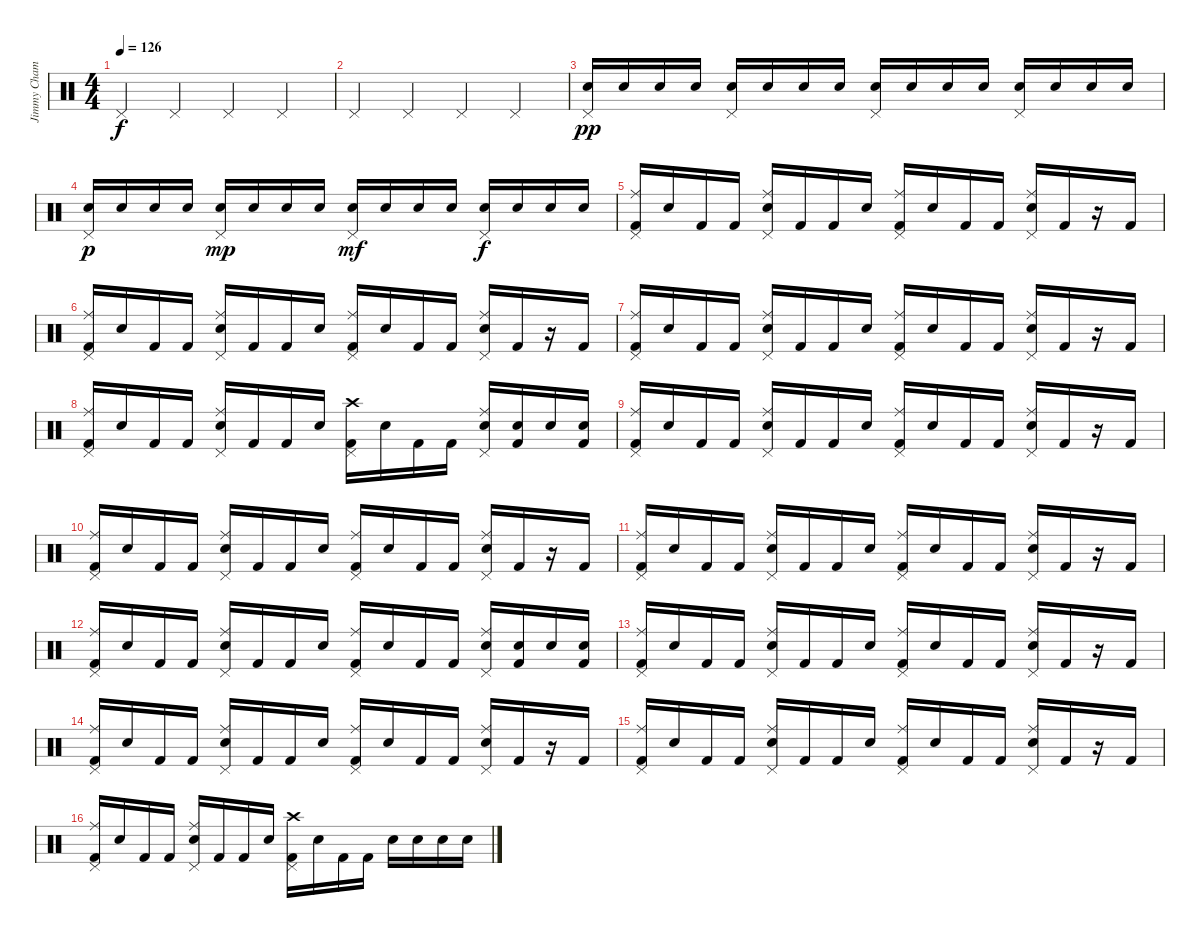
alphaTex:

\track ("Jimmy Chamberlain" "Jimmy Cham") {instrument percussion}
\staff {score}
\articulation defaults
\ts (4 4)
\tempo 126
\clef neutral
\ks c "Pedal Hi-Hat (hit)".4{dy f} "Pedal Hi-Hat (hit)".4 "Pedal Hi-Hat (hit)".4 "Pedal Hi-Hat (hit)".4
|
"Pedal Hi-Hat (hit)".4 "Pedal Hi-Hat (hit)".4 "Pedal Hi-Hat (hit)".4 "Pedal Hi-Hat (hit)".4 |
("Pedal Hi-Hat (hit)" "Snare (hit) 2").16{dy pp} "Snare (hit) 2".16 "Snare (hit) 2".16 "Snare (hit) 2".16 ("Pedal Hi-Hat (hit)" "Snare (hit) 2").16 "Snare (hit) 2".16 "Snare (hit) 2".16 "Snare (hit) 2".16 ("Pedal Hi-Hat (hit)" "Snare (hit) 2").16 "Snare (hit) 2".16 "Snare (hit) 2".16 "Snare (hit) 2".16 ("Pedal Hi-Hat (hit)" "Snare (hit) 2").16 "Snare (hit) 2".16 "Snare (hit) 2".16 "Snare (hit) 2".16 |
("Pedal Hi-Hat (hit)" "Snare (hit) 2").16{dy p} "Snare (hit) 2".16 "Snare (hit) 2".16 "Snare (hit) 2".16 ("Pedal Hi-Hat (hit)" "Snare (hit) 2").16{dy mp} "Snare (hit) 2".16 "Snare (hit) 2".16 "Snare (hit) 2".16 ("Pedal Hi-Hat (hit)" "Snare (hit) 2").16{dy mf} "Snare (hit) 2".16 "Snare (hit) 2".16 "Snare (hit) 2".16 ("Pedal Hi-Hat (hit)" "Snare (hit) 2").16{dy f} "Snare (hit) 2".16 "Snare (hit) 2".16 "Snare (hit) 2".16 |
("Ride (middle)" "Pedal Hi-Hat (hit)" "Kick (hit) 2").16 "Snare (hit) 2".16 "Kick (hit) 2".16 "Kick (hit) 2".16 ("Ride (middle)" "Pedal Hi-Hat (hit)" "Snare (hit) 2").16 "Kick (hit) 2".16 "Kick (hit) 2".16 "Snare (hit) 2".16 ("Ride (middle)" "Pedal Hi-Hat (hit)" "Kick (hit) 2").16 "Snare (hit) 2".16 "Kick (hit) 2".16 "Kick (hit) 2".16 ("Ride (middle)" "Pedal Hi-Hat (hit)" "Snare (hit) 2").16 "Kick (hit) 2".16 r.16 "Kick (hit) 2".16 |
("Ride (middle)" "Pedal Hi-Hat (hit)" "Kick (hit) 2").16 "Snare (hit) 2".16 "Kick (hit) 2".16 "Kick (hit) 2".16 ("Ride (middle)" "Pedal Hi-Hat (hit)" "Snare (hit) 2").16 "Kick (hit) 2".16 "Kick (hit) 2".16 "Snare (hit) 2".16 ("Ride (middle)" "Pedal Hi-Hat (hit)" "Kick (hit) 2").16 "Snare (hit) 2".16 "Kick (hit) 2".16 "Kick (hit) 2".16 ("Ride (middle)" "Pedal Hi-Hat (hit)" "Snare (hit) 2").16 "Kick (hit) 2".16 r.16 "Kick (hit) 2".16 |
("Ride (middle)" "Pedal Hi-Hat (hit)" "Kick (hit) 2").16 "Snare (hit) 2".16 "Kick (hit) 2".16 "Kick (hit) 2".16 ("Ride (middle)" "Pedal Hi-Hat (hit)" "Snare (hit) 2").16 "Kick (hit) 2".16 "Kick (hit) 2".16 "Snare (hit) 2".16 ("Ride (middle)" "Pedal Hi-Hat (hit)" "Kick (hit) 2").16 "Snare (hit) 2".16 "Kick (hit) 2".16 "Kick (hit) 2".16 ("Ride (middle)" "Pedal Hi-Hat (hit)" "Snare (hit) 2").16 "Kick (hit) 2".16 r.16 "Kick (hit) 2".16 |
("Ride (middle)" "Pedal Hi-Hat (hit)" "Kick (hit) 2").16 "Snare (hit) 2".16 "Kick (hit) 2".16 "Kick (hit) 2".16 ("Ride (middle)" "Pedal Hi-Hat (hit)" "Snare (hit) 2").16 "Kick (hit) 2".16 "Kick (hit) 2".16 "Snare (hit) 2".16 ("Crash high (hit)" "Pedal Hi-Hat (hit)" "Kick (hit) 2").16 "Snare (hit) 2".16 "Kick (hit) 2".16 "Kick (hit) 2".16 ("Ride (middle)" "Pedal Hi-Hat (hit)" "Snare (hit) 2").16 ("Snare (hit) 2" "Kick (hit) 2").16 "Snare (hit) 2".16 ("Snare (hit) 2" "Kick (hit) 2").16 |
("Ride (middle)" "Pedal Hi-Hat (hit)" "Kick (hit) 2").16 "Snare (hit) 2".16 "Kick (hit) 2".16 "Kick (hit) 2".16 ("Ride (middle)" "Pedal Hi-Hat (hit)" "Snare (hit) 2").16 "Kick (hit) 2".16 "Kick (hit) 2".16 "Snare (hit) 2".16 ("Ride (middle)" "Pedal Hi-Hat (hit)" "Kick (hit) 2").16 "Snare (hit) 2".16 "Kick (hit) 2".16 "Kick (hit) 2".16 ("Ride (middle)" "Pedal Hi-Hat (hit)" "Snare (hit) 2").16 "Kick (hit) 2".16 r.16 "Kick (hit) 2".16 |
("Ride (middle)" "Pedal Hi-Hat (hit)" "Kick (hit) 2").16 "Snare (hit) 2".16 "Kick (hit) 2".16 "Kick (hit) 2".16 ("Ride (middle)" "Pedal Hi-Hat (hit)" "Snare (hit) 2").16 "Kick (hit) 2".16 "Kick (hit) 2".16 "Snare (hit) 2".16 ("Ride (middle)" "Pedal Hi-Hat (hit)" "Kick (hit) 2").16 "Snare (hit) 2".16 "Kick (hit) 2".16 "Kick (hit) 2".16 ("Ride (middle)" "Pedal Hi-Hat (hit)" "Snare (hit) 2").16 "Kick (hit) 2".16 r.16 "Kick (hit) 2".16 |
("Ride (middle)" "Pedal Hi-Hat (hit)" "Kick (hit) 2").16 "Snare (hit) 2".16 "Kick (hit) 2".16 "Kick (hit) 2".16 ("Ride (middle)" "Pedal Hi-Hat (hit)" "Snare (hit) 2").16 "Kick (hit) 2".16 "Kick (hit) 2".16 "Snare (hit) 2".16 ("Ride (middle)" "Pedal Hi-Hat (hit)" "Kick (hit) 2").16 "Snare (hit) 2".16 "Kick (hit) 2".16 "Kick (hit) 2".16 ("Ride (middle)" "Pedal Hi-Hat (hit)" "Snare (hit) 2").16 "Kick (hit) 2".16 r.16 "Kick (hit) 2".16 |
("Ride (middle)" "Pedal Hi-Hat (hit)" "Kick (hit) 2").16 "Snare (hit) 2".16 "Kick (hit) 2".16 "Kick (hit) 2".16 ("Ride (middle)" "Pedal Hi-Hat (hit)" "Snare (hit) 2").16 "Kick (hit) 2".16 "Kick (hit) 2".16 "Snare (hit) 2".16 ("Ride (middle)" "Pedal Hi-Hat (hit)" "Kick (hit) 2").16 "Snare (hit) 2".16 "Kick (hit) 2".16 "Kick (hit) 2".16 ("Ride (middle)" "Pedal Hi-Hat (hit)" "Snare (hit) 2").16 ("Snare (hit) 2" "Kick (hit) 2").16 "Snare (hit) 2".16 ("Snare (hit) 2" "Kick (hit) 2").16 |
("Ride (middle)" "Pedal Hi-Hat (hit)" "Kick (hit) 2").16 "Snare (hit) 2".16 "Kick (hit) 2".16 "Kick (hit) 2".16 ("Ride (middle)" "Pedal Hi-Hat (hit)" "Snare (hit) 2").16 "Kick (hit) 2".16 "Kick (hit) 2".16 "Snare (hit) 2".16 ("Ride (middle)" "Pedal Hi-Hat (hit)" "Kick (hit) 2").16 "Snare (hit) 2".16 "Kick (hit) 2".16 "Kick (hit) 2".16 ("Ride (middle)" "Pedal Hi-Hat (hit)" "Snare (hit) 2").16 "Kick (hit) 2".16 r.16 "Kick (hit) 2".16 |
("Ride (middle)" "Pedal Hi-Hat (hit)" "Kick (hit) 2").16 "Snare (hit) 2".16 "Kick (hit) 2".16 "Kick (hit) 2".16 ("Ride (middle)" "Pedal Hi-Hat (hit)" "Snare (hit) 2").16 "Kick (hit) 2".16 "Kick (hit) 2".16 "Snare (hit) 2".16 ("Ride (middle)" "Pedal Hi-Hat (hit)" "Kick (hit) 2").16 "Snare (hit) 2".16 "Kick (hit) 2".16 "Kick (hit) 2".16 ("Ride (middle)" "Pedal Hi-Hat (hit)" "Snare (hit) 2").16 "Kick (hit) 2".16 r.16 "Kick (hit) 2".16 |
("Ride (middle)" "Pedal Hi-Hat (hit)" "Kick (hit) 2").16 "Snare (hit) 2".16 "Kick (hit) 2".16 "Kick (hit) 2".16 ("Ride (middle)" "Pedal Hi-Hat (hit)" "Snare (hit) 2").16 "Kick (hit) 2".16 "Kick (hit) 2".16 "Snare (hit) 2".16 ("Ride (middle)" "Pedal Hi-Hat (hit)" "Kick (hit) 2").16 "Snare (hit) 2".16 "Kick (hit) 2".16 "Kick (hit) 2".16 ("Ride (middle)" "Pedal Hi-Hat (hit)" "Snare (hit) 2").16 "Kick (hit) 2".16 r.16 "Kick (hit) 2".16 |
("Ride (middle)" "Pedal Hi-Hat (hit)" "Kick (hit) 2").16 "Snare (hit) 2".16 "Kick (hit) 2".16 "Kick (hit) 2".16 ("Ride (middle)" "Pedal Hi-Hat (hit)" "Snare (hit) 2").16 "Kick (hit) 2".16 "Kick (hit) 2".16 "Snare (hit) 2".16 ("Crash high (hit)" "Pedal Hi-Hat (hit)" "Kick (hit) 2").16 "Snare (hit) 2".16 "Kick (hit) 2".16 "Kick (hit) 2".16 "Snare (hit) 2".16 "Snare (hit) 2".16 "Snare (hit) 2".16 "Snare (hit) 2".16
